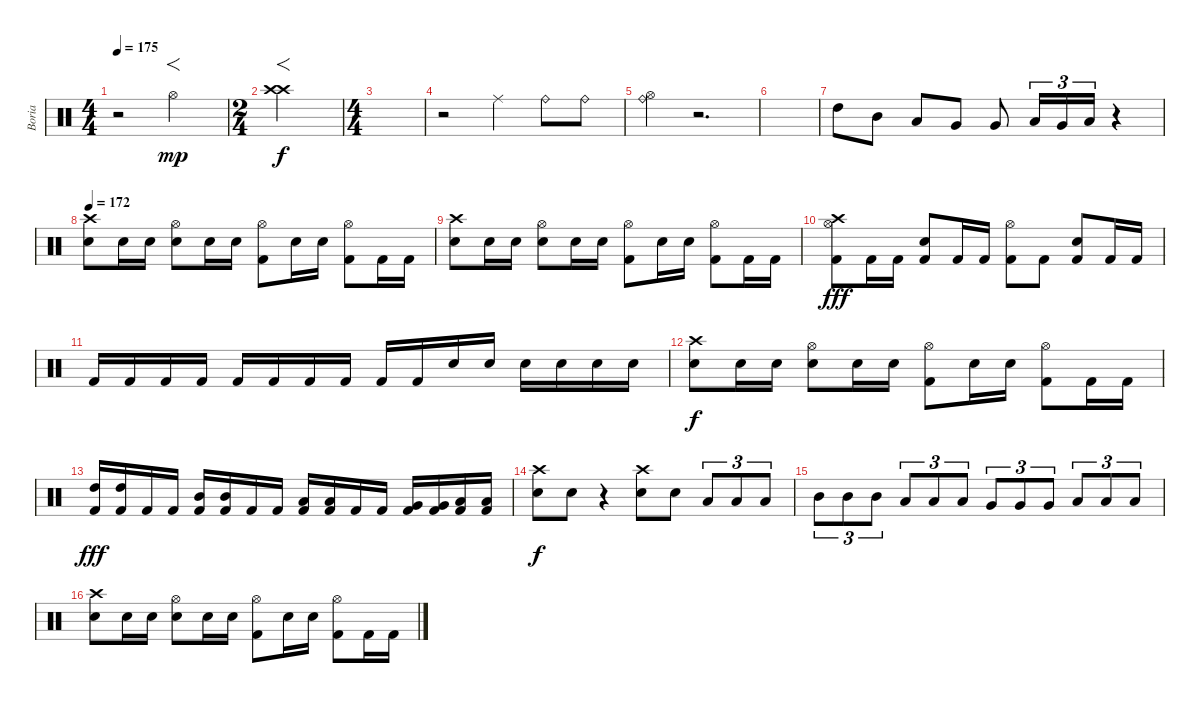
\track ("Boria" "Boria") {instrument percussion}
\staff {score}
\articulation defaults
\ts (4 4)
\tempo 175
\tempo 120
\tempo 175
\clef neutral
\ks c
r.2{dy mp} "Hi-Hat (open)".2{f} |
\ts (2 4)
("Crash high (hit)" "Crash high (hit)").2{f dy f} |
\ts (4 4)
|
r.2 "Ride (middle)".4 "Ride (bell)".8 "Ride (bell)".8 |
("Ride (bell)" "Hi-Hat (open)").4 r.2{d} |
|
"High Tom (hit)".8 "Mid Tom (hit)".8 "Low Tom (hit)".8 "Very Low Tom (hit)".8 "Very Low Tom (hit)".8 "Low Tom (hit)".16{tu (3 2)} "Very Low Tom (hit)".16{tu (3 2)} "Low Floor Tom (hit)".16{tu (3 2)} r.4 |
\tempo 172
("Crash high (hit)" "Snare (hit) 2").8 "Snare (hit) 2".16 "Snare (hit) 2".16 ("Hi-Hat (open)" "Snare (hit) 2").8 "Snare (hit) 2".16 "Snare (hit) 2".16 ("Hi-Hat (open)" "Kick (hit) 2").8 "Snare (hit) 2".16 "Snare (hit) 2".16 ("Hi-Hat (open)" "Kick (hit) 2").8 "Kick (hit) 2".16 "Kick (hit) 2".16 |
("Crash high (hit)" "Snare (hit) 2").8 "Snare (hit) 2".16 "Snare (hit) 2".16 ("Hi-Hat (open)" "Snare (hit) 2").8 "Snare (hit) 2".16 "Snare (hit) 2".16 ("Hi-Hat (open)" "Kick (hit) 2").8 "Snare (hit) 2".16 "Snare (hit) 2".16 ("Hi-Hat (open)" "Kick (hit) 2").8 "Kick (hit) 2".16 "Kick (hit) 2".16 |
("Crash high (hit)" "Hi-Hat (open)" "Kick (hit) 2").8{dy fff} "Kick (hit) 2".16 "Kick (hit) 2".16 ("Snare (hit) 2" "Kick (hit) 2").8 "Kick (hit) 2".16 "Kick (hit) 2".16 ("Hi-Hat (open)" "Kick (hit) 2").8 "Kick (hit) 2".8 ("Snare (hit) 2" "Kick (hit) 2").8 "Kick (hit) 2".16 "Kick (hit) 2".16 |
"Kick (hit) 2".16 "Kick (hit) 2".16 "Kick (hit) 2".16 "Kick (hit) 2".16 "Kick (hit) 2".16 "Kick (hit) 2".16 "Kick (hit) 2".16 "Kick (hit) 2".16 "Kick (hit) 2".16 "Kick (hit) 2".16 "Snare (hit) 2".16 "Snare (hit) 2".16 "Snare (hit) 2".16 "Snare (hit) 2".16 "Snare (hit) 2".16 "Snare (hit) 2".16 |
("Crash high (hit)" "Snare (hit) 2").8{dy f} "Snare (hit) 2".16 "Snare (hit) 2".16 ("Hi-Hat (open)" "Snare (hit) 2").8 "Snare (hit) 2".16 "Snare (hit) 2".16 ("Hi-Hat (open)" "Kick (hit) 2").8 "Snare (hit) 2".16 "Snare (hit) 2".16 ("Hi-Hat (open)" "Kick (hit) 2").8 "Kick (hit) 2".16 "Kick (hit) 2".16 |
("High Tom (hit)" "Kick (hit) 2").16{dy fff} ("High Tom (hit)" "Kick (hit) 2").16 "Kick (hit) 2".16 "Kick (hit) 2".16 ("Mid Tom (hit)" "Kick (hit) 2").16 ("Mid Tom (hit)" "Kick (hit) 2").16 "Kick (hit) 2".16 "Kick (hit) 2".16 ("Low Tom (hit)" "Kick (hit) 2").16 ("Low Tom (hit)" "Kick (hit) 2").16 "Kick (hit) 2".16 "Kick (hit) 2".16 ("Very Low Tom (hit)" "Kick (hit) 2").16 ("Very Low Tom (hit)" "Kick (hit) 2").16 ("Low Floor Tom (hit)" "Kick (hit) 2").16 ("Low Floor Tom (hit)" "Kick (hit) 2").16 |
("Crash high (hit)" "Snare (hit) 2").8{dy f} "Snare (hit) 2".8 r.4 ("Crash high (hit)" "Snare (hit) 2").8 "Snare (hit) 2".8 "Low Tom (hit)".8{tu (3 2)} "Low Tom (hit)".8{tu (3 2)} "Low Tom (hit)".8{tu (3 2)} |
"Mid Tom (hit)".8{tu (3 2)} "Mid Tom (hit)".8{tu (3 2)} "Mid Tom (hit)".8{tu (3 2)} "Low Tom (hit)".8{tu (3 2)} "Low Tom (hit)".8{tu (3 2)} "Low Tom (hit)".8{tu (3 2)} "Very Low Tom (hit)".8{tu (3 2)} "Very Low Tom (hit)".8{tu (3 2)} "Very Low Tom (hit)".8{tu (3 2)} "Low Floor Tom (hit)".8{tu (3 2)} "Low Floor Tom (hit)".8{tu (3 2)} "Low Floor Tom (hit)".8{tu (3 2)} |
("Crash high (hit)" "Snare (hit) 2").8 "Snare (hit) 2".16 "Snare (hit) 2".16 ("Hi-Hat (open)" "Snare (hit) 2").8 "Snare (hit) 2".16 "Snare (hit) 2".16 ("Hi-Hat (open)" "Kick (hit) 2").8 "Snare (hit) 2".16 "Snare (hit) 2".16 ("Hi-Hat (open)" "Kick (hit) 2").8 "Kick (hit) 2".16 "Kick (hit) 2".16
